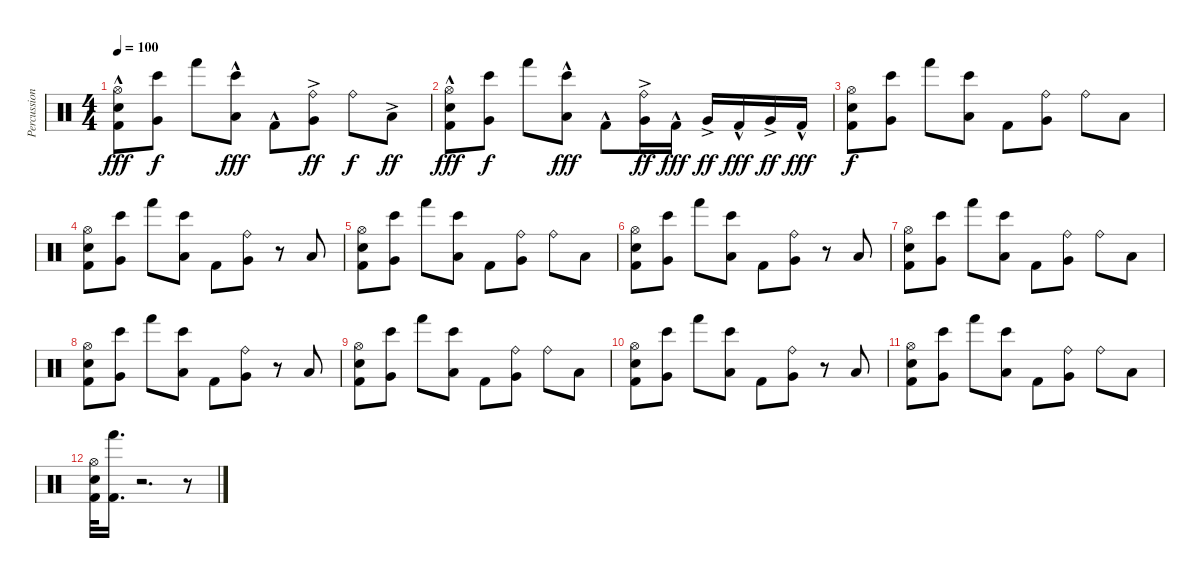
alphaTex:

\track ("Percussion" "Percussion") {instrument percussion}
\staff {score}
\articulation defaults
\ts (4 4)
\tempo 100
\clef neutral
\ks c
("Electric Snare (hit)" "Hi-Hat (open)" "Kick (hit) 2"{hac}).8{dy fff} ("Bongo High (hit)" "Very Low Tom (hit)").8{dy f} "Hand (hit)".8 ("Bongo High (hit)" "Low Floor Tom (hit)"{hac}).8{dy fff} "Kick (hit) 2"{hac}.8 ("Ride (bell)" "Very Low Tom (hit)"{ac}).8{dy ff} "Ride (bell)".8{dy f} "Low Floor Tom (hit)"{ac}.8{dy ff} |
("Electric Snare (hit)" "Hi-Hat (open)" "Kick (hit) 2"{hac}).8{dy fff} ("Bongo High (hit)" "Very Low Tom (hit)").8{dy f} "Hand (hit)".8 ("Bongo High (hit)" "Low Floor Tom (hit)"{hac}).8{dy fff} "Kick (hit) 2"{hac}.8 ("Ride (bell)" "Very Low Tom (hit)"{ac}).16{dy ff} "Kick (hit) 2"{hac}.16{dy fff} "Very Low Tom (hit)"{ac}.16{dy ff} "Kick (hit) 2"{hac}.16{dy fff} "Very Low Tom (hit)"{ac}.16{dy ff} "Kick (hit) 2"{hac}.16{dy fff} |
("Electric Snare (hit)" "Hi-Hat (open)" "Kick (hit) 2").8{dy f} ("Bongo High (hit)" "Very Low Tom (hit)").8 "Hand (hit)".8 ("Bongo High (hit)" "Low Floor Tom (hit)").8 "Kick (hit) 2".8 ("Ride (bell)" "Very Low Tom (hit)").8 "Ride (bell)".8 "Low Floor Tom (hit)".8 |
("Electric Snare (hit)" "Hi-Hat (open)" "Kick (hit) 2").8 ("Bongo High (hit)" "Very Low Tom (hit)").8 "Hand (hit)".8 ("Bongo High (hit)" "Low Floor Tom (hit)").8 "Kick (hit) 2".8 ("Ride (bell)" "Very Low Tom (hit)").8 r.8 "Low Floor Tom (hit)".8 |
("Electric Snare (hit)" "Hi-Hat (open)" "Kick (hit) 2").8 ("Bongo High (hit)" "Very Low Tom (hit)").8 "Hand (hit)".8 ("Bongo High (hit)" "Low Floor Tom (hit)").8 "Kick (hit) 2".8 ("Ride (bell)" "Very Low Tom (hit)").8 "Ride (bell)".8 "Low Floor Tom (hit)".8 |
("Electric Snare (hit)" "Hi-Hat (open)" "Kick (hit) 2").8 ("Bongo High (hit)" "Very Low Tom (hit)").8 "Hand (hit)".8 ("Bongo High (hit)" "Low Floor Tom (hit)").8 "Kick (hit) 2".8 ("Ride (bell)" "Very Low Tom (hit)").8 r.8 "Low Floor Tom (hit)".8 |
("Electric Snare (hit)" "Hi-Hat (open)" "Kick (hit) 2").8 ("Bongo High (hit)" "Very Low Tom (hit)").8 "Hand (hit)".8 ("Bongo High (hit)" "Low Floor Tom (hit)").8 "Kick (hit) 2".8 ("Ride (bell)" "Very Low Tom (hit)").8 "Ride (bell)".8 "Low Floor Tom (hit)".8 |
("Electric Snare (hit)" "Hi-Hat (open)" "Kick (hit) 2").8 ("Bongo High (hit)" "Very Low Tom (hit)").8 "Hand (hit)".8 ("Bongo High (hit)" "Low Floor Tom (hit)").8 "Kick (hit) 2".8 ("Ride (bell)" "Very Low Tom (hit)").8 r.8 "Low Floor Tom (hit)".8 |
("Electric Snare (hit)" "Hi-Hat (open)" "Kick (hit) 2").8 ("Bongo High (hit)" "Very Low Tom (hit)").8 "Hand (hit)".8 ("Bongo High (hit)" "Low Floor Tom (hit)").8 "Kick (hit) 2".8 ("Ride (bell)" "Very Low Tom (hit)").8 "Ride (bell)".8 "Low Floor Tom (hit)".8 |
("Electric Snare (hit)" "Hi-Hat (open)" "Kick (hit) 2").8 ("Bongo High (hit)" "Very Low Tom (hit)").8 "Hand (hit)".8 ("Bongo High (hit)" "Low Floor Tom (hit)").8 "Kick (hit) 2".8 ("Ride (bell)" "Very Low Tom (hit)").8 r.8 "Low Floor Tom (hit)".8 |
("Electric Snare (hit)" "Hi-Hat (open)" "Kick (hit) 2").8 ("Bongo High (hit)" "Very Low Tom (hit)").8 "Hand (hit)".8 ("Bongo High (hit)" "Low Floor Tom (hit)").8 "Kick (hit) 2".8 ("Ride (bell)" "Very Low Tom (hit)").8 "Ride (bell)".8 "Low Floor Tom (hit)".8 |
("Electric Snare (hit)" "Hi-Hat (open)" "Kick (hit) 2").32 ("Hand (hit)" "Kick (hit) 2").16{d} r.2{d} r.8
